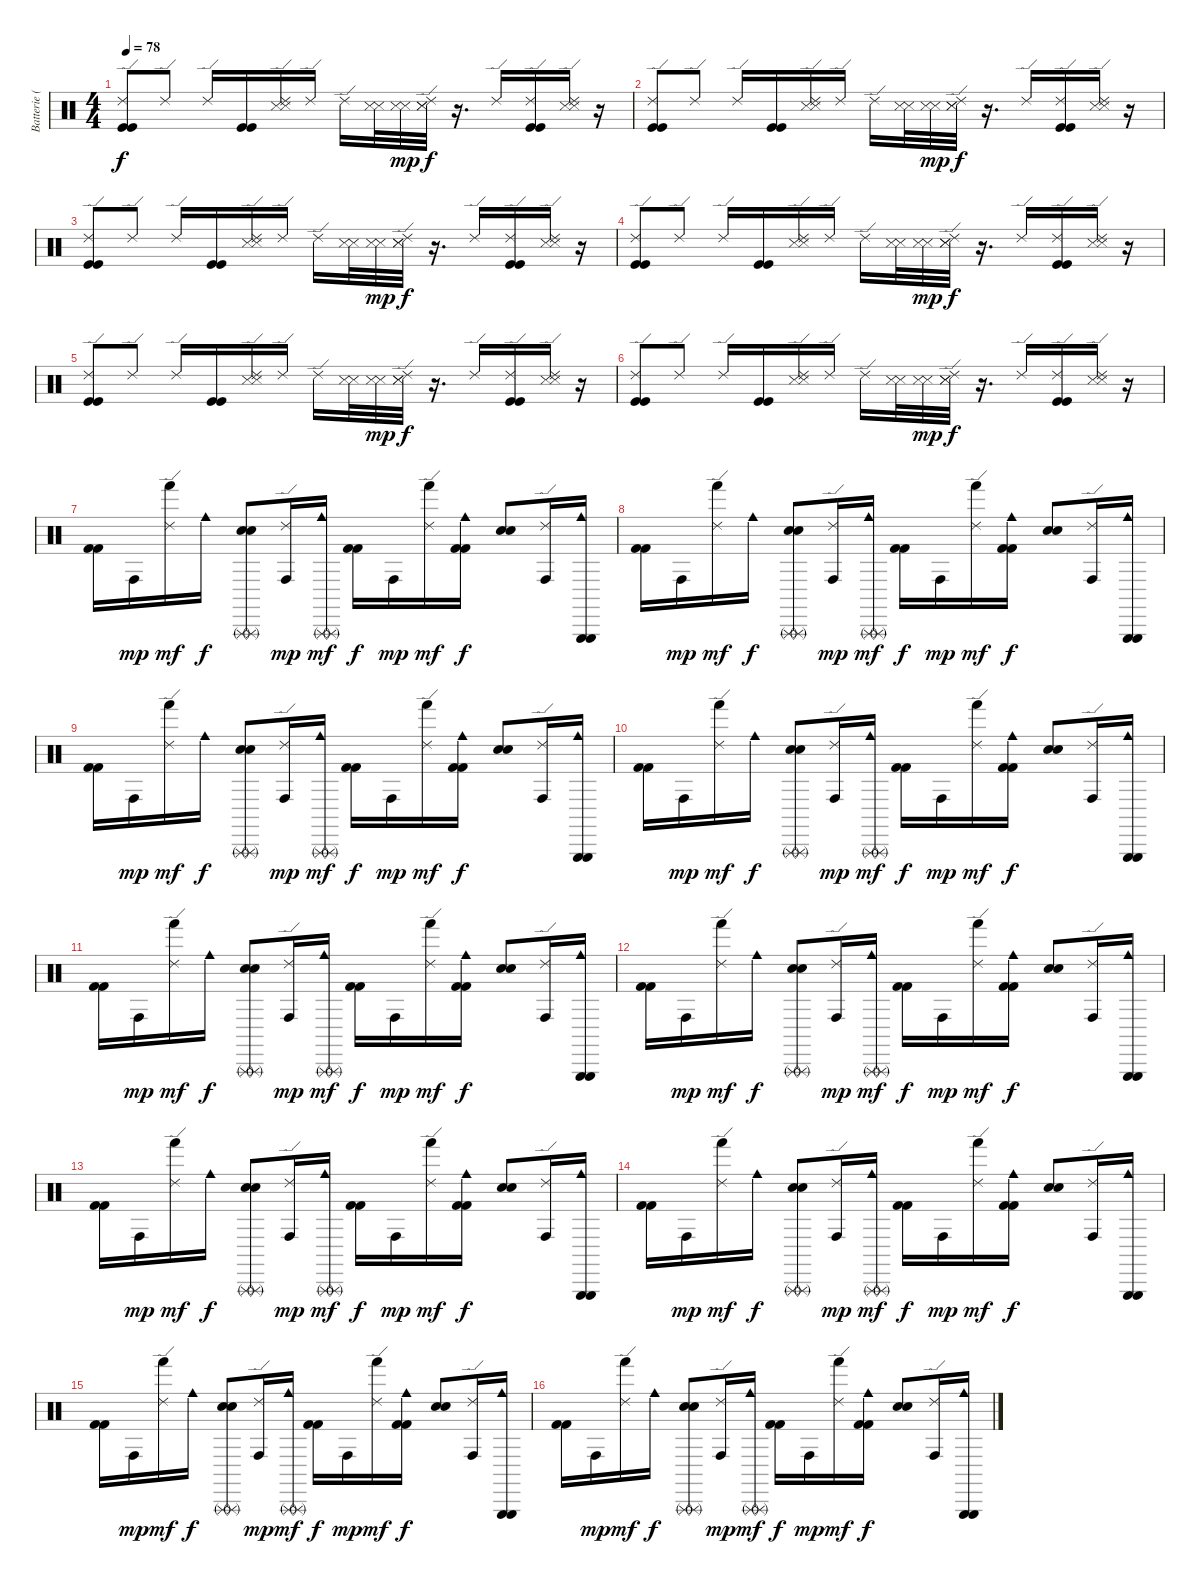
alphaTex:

\track ("Batterie ( Raphaël )" "Batterie (") {instrument percussion}
\staff {score}
\articulation defaults
\ts (4 4)
\tempo 78
\clef neutral
\ks c
("Ride (edge) 2" "Kick (hit)" "Kick (hit)").8{dy f} "Ride (edge) 2".8 "Ride (edge) 2".16 ("Kick (hit)" "Kick (hit)").16 ("Ride (edge) 2" "Snare (side stick) 3" "Snare (side stick) 3").16 "Ride (edge) 2".16 "Ride (edge) 2".16 ("Snare (side stick) 3" "Snare (side stick) 3").32 ("Snare (side stick) 3" "Snare (side stick) 3").32{dy mp} ("Ride (edge) 2" "Snare (side stick) 3" "Snare (side stick) 3").32{dy f} r.16{d} "Ride (edge) 2".16 ("Ride (edge) 2" "Kick (hit)" "Kick (hit)").16 ("Ride (edge) 2" "Snare (side stick) 3" "Snare (side stick) 3").16 r.16 |
("Ride (edge) 2" "Kick (hit)" "Kick (hit)").8 "Ride (edge) 2".8 "Ride (edge) 2".16 ("Kick (hit)" "Kick (hit)").16 ("Ride (edge) 2" "Snare (side stick) 3" "Snare (side stick) 3").16 "Ride (edge) 2".16 "Ride (edge) 2".16 ("Snare (side stick) 3" "Snare (side stick) 3").32 ("Snare (side stick) 3" "Snare (side stick) 3").32{dy mp} ("Ride (edge) 2" "Snare (side stick) 3" "Snare (side stick) 3").32{dy f} r.16{d} "Ride (edge) 2".16 ("Ride (edge) 2" "Kick (hit)" "Kick (hit)").16 ("Ride (edge) 2" "Snare (side stick) 3" "Snare (side stick) 3").16 r.16 |
("Ride (edge) 2" "Kick (hit)" "Kick (hit)").8 "Ride (edge) 2".8 "Ride (edge) 2".16 ("Kick (hit)" "Kick (hit)").16 ("Ride (edge) 2" "Snare (side stick) 3" "Snare (side stick) 3").16 "Ride (edge) 2".16 "Ride (edge) 2".16 ("Snare (side stick) 3" "Snare (side stick) 3").32 ("Snare (side stick) 3" "Snare (side stick) 3").32{dy mp} ("Ride (edge) 2" "Snare (side stick) 3" "Snare (side stick) 3").32{dy f} r.16{d} "Ride (edge) 2".16 ("Ride (edge) 2" "Kick (hit)" "Kick (hit)").16 ("Ride (edge) 2" "Snare (side stick) 3" "Snare (side stick) 3").16 r.16 |
("Ride (edge) 2" "Kick (hit)" "Kick (hit)").8 "Ride (edge) 2".8 "Ride (edge) 2".16 ("Kick (hit)" "Kick (hit)").16 ("Ride (edge) 2" "Snare (side stick) 3" "Snare (side stick) 3").16 "Ride (edge) 2".16 "Ride (edge) 2".16 ("Snare (side stick) 3" "Snare (side stick) 3").32 ("Snare (side stick) 3" "Snare (side stick) 3").32{dy mp} ("Ride (edge) 2" "Snare (side stick) 3" "Snare (side stick) 3").32{dy f} r.16{d} "Ride (edge) 2".16 ("Ride (edge) 2" "Kick (hit)" "Kick (hit)").16 ("Ride (edge) 2" "Snare (side stick) 3" "Snare (side stick) 3").16 r.16 |
("Ride (edge) 2" "Kick (hit)" "Kick (hit)").8 "Ride (edge) 2".8 "Ride (edge) 2".16 ("Kick (hit)" "Kick (hit)").16 ("Ride (edge) 2" "Snare (side stick) 3" "Snare (side stick) 3").16 "Ride (edge) 2".16 "Ride (edge) 2".16 ("Snare (side stick) 3" "Snare (side stick) 3").32 ("Snare (side stick) 3" "Snare (side stick) 3").32{dy mp} ("Ride (edge) 2" "Snare (side stick) 3" "Snare (side stick) 3").32{dy f} r.16{d} "Ride (edge) 2".16 ("Ride (edge) 2" "Kick (hit)" "Kick (hit)").16 ("Ride (edge) 2" "Snare (side stick) 3" "Snare (side stick) 3").16 r.16 |
("Ride (edge) 2" "Kick (hit)" "Kick (hit)").8 "Ride (edge) 2".8 "Ride (edge) 2".16 ("Kick (hit)" "Kick (hit)").16 ("Ride (edge) 2" "Snare (side stick) 3" "Snare (side stick) 3").16 "Ride (edge) 2".16 "Ride (edge) 2".16 ("Snare (side stick) 3" "Snare (side stick) 3").32 ("Snare (side stick) 3" "Snare (side stick) 3").32{dy mp} ("Ride (edge) 2" "Snare (side stick) 3" "Snare (side stick) 3").32{dy f} r.16{d} "Ride (edge) 2".16 ("Ride (edge) 2" "Kick (hit)" "Kick (hit)").16 ("Ride (edge) 2" "Snare (side stick) 3" "Snare (side stick) 3").16 r.16 |
("Kick (hit) 2" "Kick (hit) 2").16 "Conga high (hit)".16{dy mp} ("Ride (edge) 2" "Hand (hit)").16{dy mf} "Cowbell medium (hit)".16{dy f} ("Triangle (rnute)" "Triangle (rnute)" "Electric Snare (hit)" "Electric Snare (hit)").8 ("Ride (edge) 2" "Conga high (hit)").16{dy mp} ("Triangle (rnute)" "Triangle (rnute)" "Cowbell medium (hit)").16{dy mf} ("Kick (hit) 2" "Kick (hit) 2").16{dy f} "Conga high (hit)".16{dy mp} ("Ride (edge) 2" "Hand (hit)").16{dy mf} ("Cowbell medium (hit)" "Kick (hit) 2" "Kick (hit) 2").16{dy f} ("Electric Snare (hit)" "Electric Snare (hit)").8 ("Ride (edge) 2" "Conga high (hit)").16 ("Triangle (hit)" "Triangle (hit)" "Cowbell medium (hit)").16 |
("Kick (hit) 2" "Kick (hit) 2").16 "Conga high (hit)".16{dy mp} ("Ride (edge) 2" "Hand (hit)").16{dy mf} "Cowbell medium (hit)".16{dy f} ("Triangle (rnute)" "Triangle (rnute)" "Electric Snare (hit)" "Electric Snare (hit)").8 ("Ride (edge) 2" "Conga high (hit)").16{dy mp} ("Triangle (rnute)" "Triangle (rnute)" "Cowbell medium (hit)").16{dy mf} ("Kick (hit) 2" "Kick (hit) 2").16{dy f} "Conga high (hit)".16{dy mp} ("Ride (edge) 2" "Hand (hit)").16{dy mf} ("Cowbell medium (hit)" "Kick (hit) 2" "Kick (hit) 2").16{dy f} ("Electric Snare (hit)" "Electric Snare (hit)").8 ("Ride (edge) 2" "Conga high (hit)").16 ("Triangle (hit)" "Triangle (hit)" "Cowbell medium (hit)").16 |
("Kick (hit) 2" "Kick (hit) 2").16 "Conga high (hit)".16{dy mp} ("Ride (edge) 2" "Hand (hit)").16{dy mf} "Cowbell medium (hit)".16{dy f} ("Triangle (rnute)" "Triangle (rnute)" "Electric Snare (hit)" "Electric Snare (hit)").8 ("Ride (edge) 2" "Conga high (hit)").16{dy mp} ("Triangle (rnute)" "Triangle (rnute)" "Cowbell medium (hit)").16{dy mf} ("Kick (hit) 2" "Kick (hit) 2").16{dy f} "Conga high (hit)".16{dy mp} ("Ride (edge) 2" "Hand (hit)").16{dy mf} ("Cowbell medium (hit)" "Kick (hit) 2" "Kick (hit) 2").16{dy f} ("Electric Snare (hit)" "Electric Snare (hit)").8 ("Ride (edge) 2" "Conga high (hit)").16 ("Triangle (hit)" "Triangle (hit)" "Cowbell medium (hit)").16 |
("Kick (hit) 2" "Kick (hit) 2").16 "Conga high (hit)".16{dy mp} ("Ride (edge) 2" "Hand (hit)").16{dy mf} "Cowbell medium (hit)".16{dy f} ("Triangle (rnute)" "Triangle (rnute)" "Electric Snare (hit)" "Electric Snare (hit)").8 ("Ride (edge) 2" "Conga high (hit)").16{dy mp} ("Triangle (rnute)" "Triangle (rnute)" "Cowbell medium (hit)").16{dy mf} ("Kick (hit) 2" "Kick (hit) 2").16{dy f} "Conga high (hit)".16{dy mp} ("Ride (edge) 2" "Hand (hit)").16{dy mf} ("Cowbell medium (hit)" "Kick (hit) 2" "Kick (hit) 2").16{dy f} ("Electric Snare (hit)" "Electric Snare (hit)").8 ("Ride (edge) 2" "Conga high (hit)").16 ("Triangle (hit)" "Triangle (hit)" "Cowbell medium (hit)").16 |
("Kick (hit) 2" "Kick (hit) 2").16 "Conga high (hit)".16{dy mp} ("Ride (edge) 2" "Hand (hit)").16{dy mf} "Cowbell medium (hit)".16{dy f} ("Triangle (rnute)" "Triangle (rnute)" "Electric Snare (hit)" "Electric Snare (hit)").8 ("Ride (edge) 2" "Conga high (hit)").16{dy mp} ("Triangle (rnute)" "Triangle (rnute)" "Cowbell medium (hit)").16{dy mf} ("Kick (hit) 2" "Kick (hit) 2").16{dy f} "Conga high (hit)".16{dy mp} ("Ride (edge) 2" "Hand (hit)").16{dy mf} ("Cowbell medium (hit)" "Kick (hit) 2" "Kick (hit) 2").16{dy f} ("Electric Snare (hit)" "Electric Snare (hit)").8 ("Ride (edge) 2" "Conga high (hit)").16 ("Triangle (hit)" "Triangle (hit)" "Cowbell medium (hit)").16 |
("Kick (hit) 2" "Kick (hit) 2").16 "Conga high (hit)".16{dy mp} ("Ride (edge) 2" "Hand (hit)").16{dy mf} "Cowbell medium (hit)".16{dy f} ("Triangle (rnute)" "Triangle (rnute)" "Electric Snare (hit)" "Electric Snare (hit)").8 ("Ride (edge) 2" "Conga high (hit)").16{dy mp} ("Triangle (rnute)" "Triangle (rnute)" "Cowbell medium (hit)").16{dy mf} ("Kick (hit) 2" "Kick (hit) 2").16{dy f} "Conga high (hit)".16{dy mp} ("Ride (edge) 2" "Hand (hit)").16{dy mf} ("Cowbell medium (hit)" "Kick (hit) 2" "Kick (hit) 2").16{dy f} ("Electric Snare (hit)" "Electric Snare (hit)").8 ("Ride (edge) 2" "Conga high (hit)").16 ("Triangle (hit)" "Triangle (hit)" "Cowbell medium (hit)").16 |
("Kick (hit) 2" "Kick (hit) 2").16 "Conga high (hit)".16{dy mp} ("Ride (edge) 2" "Hand (hit)").16{dy mf} "Cowbell medium (hit)".16{dy f} ("Triangle (rnute)" "Triangle (rnute)" "Electric Snare (hit)" "Electric Snare (hit)").8 ("Ride (edge) 2" "Conga high (hit)").16{dy mp} ("Triangle (rnute)" "Triangle (rnute)" "Cowbell medium (hit)").16{dy mf} ("Kick (hit) 2" "Kick (hit) 2").16{dy f} "Conga high (hit)".16{dy mp} ("Ride (edge) 2" "Hand (hit)").16{dy mf} ("Cowbell medium (hit)" "Kick (hit) 2" "Kick (hit) 2").16{dy f} ("Electric Snare (hit)" "Electric Snare (hit)").8 ("Ride (edge) 2" "Conga high (hit)").16 ("Triangle (hit)" "Triangle (hit)" "Cowbell medium (hit)").16 |
("Kick (hit) 2" "Kick (hit) 2").16 "Conga high (hit)".16{dy mp} ("Ride (edge) 2" "Hand (hit)").16{dy mf} "Cowbell medium (hit)".16{dy f} ("Triangle (rnute)" "Triangle (rnute)" "Electric Snare (hit)" "Electric Snare (hit)").8 ("Ride (edge) 2" "Conga high (hit)").16{dy mp} ("Triangle (rnute)" "Triangle (rnute)" "Cowbell medium (hit)").16{dy mf} ("Kick (hit) 2" "Kick (hit) 2").16{dy f} "Conga high (hit)".16{dy mp} ("Ride (edge) 2" "Hand (hit)").16{dy mf} ("Cowbell medium (hit)" "Kick (hit) 2" "Kick (hit) 2").16{dy f} ("Electric Snare (hit)" "Electric Snare (hit)").8 ("Ride (edge) 2" "Conga high (hit)").16 ("Triangle (hit)" "Triangle (hit)" "Cowbell medium (hit)").16 |
("Kick (hit) 2" "Kick (hit) 2").16 "Conga high (hit)".16{dy mp} ("Ride (edge) 2" "Hand (hit)").16{dy mf} "Cowbell medium (hit)".16{dy f} ("Triangle (rnute)" "Triangle (rnute)" "Electric Snare (hit)" "Electric Snare (hit)").8 ("Ride (edge) 2" "Conga high (hit)").16{dy mp} ("Triangle (rnute)" "Triangle (rnute)" "Cowbell medium (hit)").16{dy mf} ("Kick (hit) 2" "Kick (hit) 2").16{dy f} "Conga high (hit)".16{dy mp} ("Ride (edge) 2" "Hand (hit)").16{dy mf} ("Cowbell medium (hit)" "Kick (hit) 2" "Kick (hit) 2").16{dy f} ("Electric Snare (hit)" "Electric Snare (hit)").8 ("Ride (edge) 2" "Conga high (hit)").16 ("Triangle (hit)" "Triangle (hit)" "Cowbell medium (hit)").16 |
("Kick (hit) 2" "Kick (hit) 2").16 "Conga high (hit)".16{dy mp} ("Ride (edge) 2" "Hand (hit)").16{dy mf} "Cowbell medium (hit)".16{dy f} ("Triangle (rnute)" "Triangle (rnute)" "Electric Snare (hit)" "Electric Snare (hit)").8 ("Ride (edge) 2" "Conga high (hit)").16{dy mp} ("Triangle (rnute)" "Triangle (rnute)" "Cowbell medium (hit)").16{dy mf} ("Kick (hit) 2" "Kick (hit) 2").16{dy f} "Conga high (hit)".16{dy mp} ("Ride (edge) 2" "Hand (hit)").16{dy mf} ("Cowbell medium (hit)" "Kick (hit) 2" "Kick (hit) 2").16{dy f} ("Electric Snare (hit)" "Electric Snare (hit)").8 ("Ride (edge) 2" "Conga high (hit)").16 ("Triangle (hit)" "Triangle (hit)" "Cowbell medium (hit)").16
